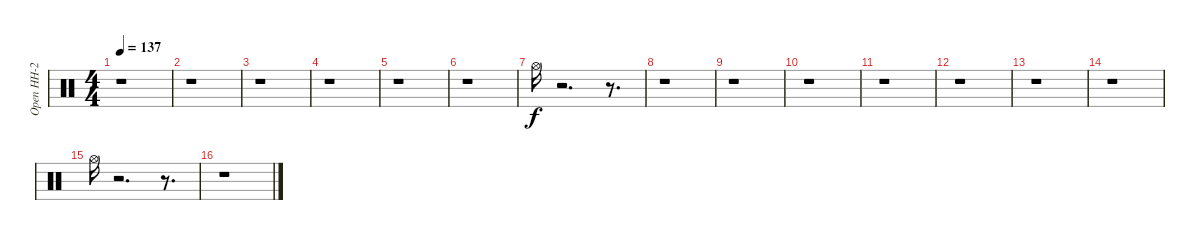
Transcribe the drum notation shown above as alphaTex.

\track ("Open HH-2" "Open HH-2") {instrument percussion}
\staff {score}
\articulation defaults
\ts (4 4)
\tempo 137
\clef neutral
\ks c
r.1{dy f} |
r.1 |
r.1 |
r.1 |
r.1 |
r.1 |
"Hi-Hat (open)".16 r.2{d} r.8{d} |
r.1 |
r.1 |
r.1 |
r.1 |
r.1 |
r.1 |
r.1 |
"Hi-Hat (open)".16 r.2{d} r.8{d} |
r.1
